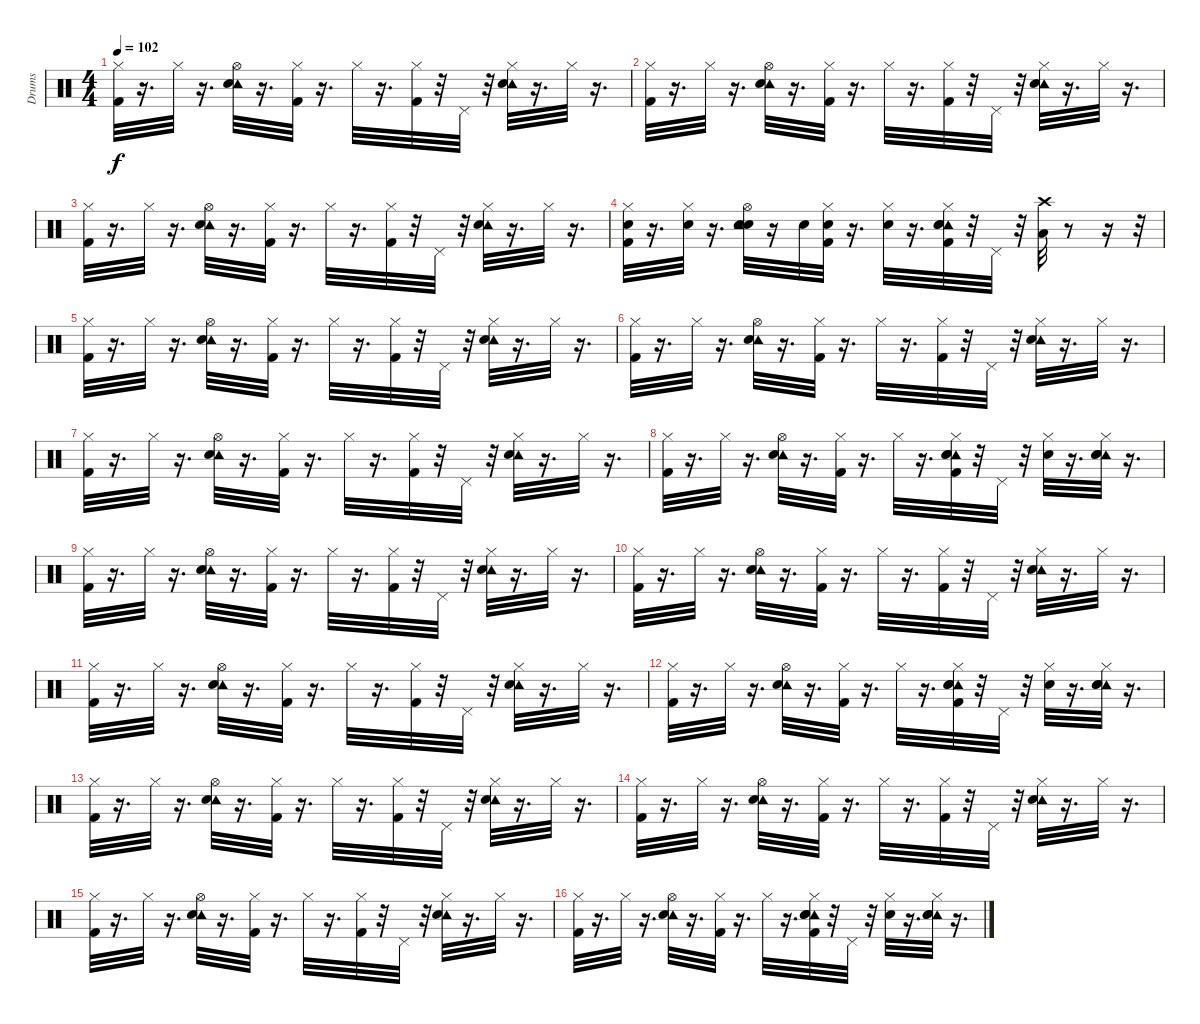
\track ("Drums" "Drums") {instrument percussion}
\staff {score}
\articulation defaults
\ts (4 4)
\tempo 102
\clef neutral
\ks c
("Hi-Hat (closed)" "Kick (hit) 2").32{dy f} r.16{d} "Hi-Hat (closed)".32 r.16{d} ("Tambourine (hit)" "Hi-Hat (open)" "Electric Snare (hit)").32 r.16{d} ("Hi-Hat (closed)" "Kick (hit) 2").32 r.16{d} "Hi-Hat (closed)".32 r.16{d} ("Hi-Hat (closed)" "Kick (hit) 2").32 r.32 "Pedal Hi-Hat (hit)".32 r.32 ("Tambourine (hit)" "Hi-Hat (closed)" "Electric Snare (hit)").32 r.16{d} "Hi-Hat (closed)".32 r.16{d} |
("Hi-Hat (closed)" "Kick (hit) 2").32 r.16{d} "Hi-Hat (closed)".32 r.16{d} ("Tambourine (hit)" "Hi-Hat (open)" "Electric Snare (hit)").32 r.16{d} ("Hi-Hat (closed)" "Kick (hit) 2").32 r.16{d} "Hi-Hat (closed)".32 r.16{d} ("Hi-Hat (closed)" "Kick (hit) 2").32 r.32 "Pedal Hi-Hat (hit)".32 r.32 ("Tambourine (hit)" "Hi-Hat (closed)" "Electric Snare (hit)").32 r.16{d} "Hi-Hat (closed)".32 r.16{d} |
("Hi-Hat (closed)" "Kick (hit) 2").32 r.16{d} "Hi-Hat (closed)".32 r.16{d} ("Tambourine (hit)" "Hi-Hat (open)" "Electric Snare (hit)").32 r.16{d} ("Hi-Hat (closed)" "Kick (hit) 2").32 r.16{d} "Hi-Hat (closed)".32 r.16{d} ("Hi-Hat (closed)" "Kick (hit) 2").32 r.32 "Pedal Hi-Hat (hit)".32 r.32 ("Tambourine (hit)" "Hi-Hat (closed)" "Electric Snare (hit)").32 r.16{d} "Hi-Hat (closed)".32 r.16{d} |
("Snare (hit) 2" "Hi-Hat (closed)" "Kick (hit) 2").32 r.16{d} ("Snare (hit) 2" "Hi-Hat (closed)").32 r.16{d} ("Snare (hit) 2" "Tambourine (hit)" "Hi-Hat (open)" "Electric Snare (hit)").32 r.16 "Snare (hit) 2".32 ("Snare (hit) 2" "Hi-Hat (closed)" "Kick (hit) 2").32 r.16{d} ("Snare (hit) 2" "Hi-Hat (closed)").32 r.16{d} ("Tambourine (hit)" "Electric Snare (hit)" "Snare (hit) 2" "Hi-Hat (closed)" "Kick (hit) 2").32 r.32 "Pedal Hi-Hat (hit)".32 r.32 ("Low Floor Tom (hit)" "Crash high (hit)").32 r.8 r.16 r.32 |
("Hi-Hat (closed)" "Kick (hit) 2").32 r.16{d} "Hi-Hat (closed)".32 r.16{d} ("Tambourine (hit)" "Hi-Hat (open)" "Electric Snare (hit)").32 r.16{d} ("Hi-Hat (closed)" "Kick (hit) 2").32 r.16{d} "Hi-Hat (closed)".32 r.16{d} ("Hi-Hat (closed)" "Kick (hit) 2").32 r.32 "Pedal Hi-Hat (hit)".32 r.32 ("Tambourine (hit)" "Hi-Hat (closed)" "Electric Snare (hit)").32 r.16{d} "Hi-Hat (closed)".32 r.16{d} |
("Hi-Hat (closed)" "Kick (hit) 2").32 r.16{d} "Hi-Hat (closed)".32 r.16{d} ("Tambourine (hit)" "Hi-Hat (open)" "Electric Snare (hit)").32 r.16{d} ("Hi-Hat (closed)" "Kick (hit) 2").32 r.16{d} "Hi-Hat (closed)".32 r.16{d} ("Hi-Hat (closed)" "Kick (hit) 2").32 r.32 "Pedal Hi-Hat (hit)".32 r.32 ("Tambourine (hit)" "Hi-Hat (closed)" "Electric Snare (hit)").32 r.16{d} "Hi-Hat (closed)".32 r.16{d} |
("Hi-Hat (closed)" "Kick (hit) 2").32 r.16{d} "Hi-Hat (closed)".32 r.16{d} ("Tambourine (hit)" "Hi-Hat (open)" "Electric Snare (hit)").32 r.16{d} ("Hi-Hat (closed)" "Kick (hit) 2").32 r.16{d} "Hi-Hat (closed)".32 r.16{d} ("Hi-Hat (closed)" "Kick (hit) 2").32 r.32 "Pedal Hi-Hat (hit)".32 r.32 ("Tambourine (hit)" "Hi-Hat (closed)" "Electric Snare (hit)").32 r.16{d} "Hi-Hat (closed)".32 r.16{d} |
("Hi-Hat (closed)" "Kick (hit) 2").32 r.16{d} "Hi-Hat (closed)".32 r.16{d} ("Tambourine (hit)" "Hi-Hat (open)" "Electric Snare (hit)").32 r.16{d} ("Hi-Hat (closed)" "Kick (hit) 2").32 r.16{d} "Hi-Hat (closed)".32 r.16{d} ("Tambourine (hit)" "Electric Snare (hit)" "Snare (hit) 2" "Hi-Hat (closed)" "Kick (hit) 2").32 r.32 "Pedal Hi-Hat (hit)".32 r.32 ("Hi-Hat (closed)" "Electric Snare (hit)").32 r.16{d} ("Tambourine (hit)" "Electric Snare (hit)" "Snare (hit) 2" "Hi-Hat (closed)").32 r.16{d} |
("Hi-Hat (closed)" "Kick (hit) 2").32 r.16{d} "Hi-Hat (closed)".32 r.16{d} ("Tambourine (hit)" "Hi-Hat (open)" "Electric Snare (hit)").32 r.16{d} ("Hi-Hat (closed)" "Kick (hit) 2").32 r.16{d} "Hi-Hat (closed)".32 r.16{d} ("Hi-Hat (closed)" "Kick (hit) 2").32 r.32 "Pedal Hi-Hat (hit)".32 r.32 ("Tambourine (hit)" "Hi-Hat (closed)" "Electric Snare (hit)").32 r.16{d} "Hi-Hat (closed)".32 r.16{d} |
("Hi-Hat (closed)" "Kick (hit) 2").32 r.16{d} "Hi-Hat (closed)".32 r.16{d} ("Tambourine (hit)" "Hi-Hat (open)" "Electric Snare (hit)").32 r.16{d} ("Hi-Hat (closed)" "Kick (hit) 2").32 r.16{d} "Hi-Hat (closed)".32 r.16{d} ("Hi-Hat (closed)" "Kick (hit) 2").32 r.32 "Pedal Hi-Hat (hit)".32 r.32 ("Tambourine (hit)" "Hi-Hat (closed)" "Electric Snare (hit)").32 r.16{d} "Hi-Hat (closed)".32 r.16{d} |
("Hi-Hat (closed)" "Kick (hit) 2").32 r.16{d} "Hi-Hat (closed)".32 r.16{d} ("Tambourine (hit)" "Hi-Hat (open)" "Electric Snare (hit)").32 r.16{d} ("Hi-Hat (closed)" "Kick (hit) 2").32 r.16{d} "Hi-Hat (closed)".32 r.16{d} ("Hi-Hat (closed)" "Kick (hit) 2").32 r.32 "Pedal Hi-Hat (hit)".32 r.32 ("Tambourine (hit)" "Hi-Hat (closed)" "Electric Snare (hit)").32 r.16{d} "Hi-Hat (closed)".32 r.16{d} |
("Hi-Hat (closed)" "Kick (hit) 2").32 r.16{d} "Hi-Hat (closed)".32 r.16{d} ("Tambourine (hit)" "Hi-Hat (open)" "Electric Snare (hit)").32 r.16{d} ("Hi-Hat (closed)" "Kick (hit) 2").32 r.16{d} "Hi-Hat (closed)".32 r.16{d} ("Tambourine (hit)" "Electric Snare (hit)" "Snare (hit) 2" "Hi-Hat (closed)" "Kick (hit) 2").32 r.32 "Pedal Hi-Hat (hit)".32 r.32 ("Hi-Hat (closed)" "Electric Snare (hit)").32 r.16{d} ("Tambourine (hit)" "Electric Snare (hit)" "Snare (hit) 2" "Hi-Hat (closed)").32 r.16{d} |
("Hi-Hat (closed)" "Kick (hit) 2").32 r.16{d} "Hi-Hat (closed)".32 r.16{d} ("Tambourine (hit)" "Hi-Hat (open)" "Electric Snare (hit)").32 r.16{d} ("Hi-Hat (closed)" "Kick (hit) 2").32 r.16{d} "Hi-Hat (closed)".32 r.16{d} ("Hi-Hat (closed)" "Kick (hit) 2").32 r.32 "Pedal Hi-Hat (hit)".32 r.32 ("Tambourine (hit)" "Hi-Hat (closed)" "Electric Snare (hit)").32 r.16{d} "Hi-Hat (closed)".32 r.16{d} |
("Hi-Hat (closed)" "Kick (hit) 2").32 r.16{d} "Hi-Hat (closed)".32 r.16{d} ("Tambourine (hit)" "Hi-Hat (open)" "Electric Snare (hit)").32 r.16{d} ("Hi-Hat (closed)" "Kick (hit) 2").32 r.16{d} "Hi-Hat (closed)".32 r.16{d} ("Hi-Hat (closed)" "Kick (hit) 2").32 r.32 "Pedal Hi-Hat (hit)".32 r.32 ("Tambourine (hit)" "Hi-Hat (closed)" "Electric Snare (hit)").32 r.16{d} "Hi-Hat (closed)".32 r.16{d} |
("Hi-Hat (closed)" "Kick (hit) 2").32 r.16{d} "Hi-Hat (closed)".32 r.16{d} ("Tambourine (hit)" "Hi-Hat (open)" "Electric Snare (hit)").32 r.16{d} ("Hi-Hat (closed)" "Kick (hit) 2").32 r.16{d} "Hi-Hat (closed)".32 r.16{d} ("Hi-Hat (closed)" "Kick (hit) 2").32 r.32 "Pedal Hi-Hat (hit)".32 r.32 ("Tambourine (hit)" "Hi-Hat (closed)" "Electric Snare (hit)").32 r.16{d} "Hi-Hat (closed)".32 r.16{d} |
("Hi-Hat (closed)" "Kick (hit) 2").32 r.16{d} "Hi-Hat (closed)".32 r.16{d} ("Tambourine (hit)" "Hi-Hat (open)" "Electric Snare (hit)").32 r.16{d} ("Hi-Hat (closed)" "Kick (hit) 2").32 r.16{d} "Hi-Hat (closed)".32 r.16{d} ("Tambourine (hit)" "Electric Snare (hit)" "Snare (hit) 2" "Hi-Hat (closed)" "Kick (hit) 2").32 r.32 "Pedal Hi-Hat (hit)".32 r.32 ("Hi-Hat (closed)" "Electric Snare (hit)").32 r.16{d} ("Tambourine (hit)" "Electric Snare (hit)" "Snare (hit) 2" "Hi-Hat (closed)").32 r.16{d}
